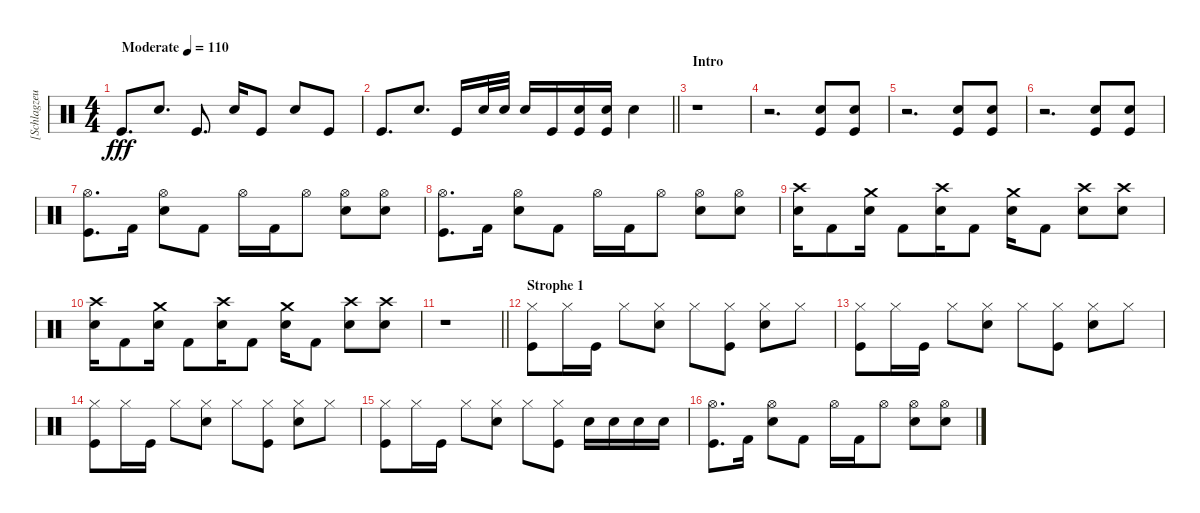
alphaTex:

\track ("[Schlagzeug]" "[Schlagzeu") {instrument percussion}
\staff {score}
\articulation defaults
\ts (4 4)
\tempo (110 "Moderate")
\clef neutral
\ks c "Kick (hit)".8{d dy fff volume 2} "Snare (hit) 2".8{d volume 6} "Kick (hit)".8{d} "Snare (hit) 2".16 "Kick (hit)".8 "Snare (hit) 2".8 "Kick (hit)".8
|
\barLineRight lightlight "Kick (hit)".8{d} "Snare (hit) 2".8{d} "Kick (hit)".16 "Snare (hit) 2".32 "Snare (hit) 2".32 "Snare (hit) 2".16 "Kick (hit)".16
("Kick (hit)" "Snare (hit) 2").16 ("Kick (hit)" "Snare (hit) 2").16 "Snare (hit) 2".4 |
\section ("" "Intro")
r.1{volume 16} |
r.2{d} ("Kick (hit)" "Electric Snare (hit)").8 ("Kick (hit)" "Electric Snare (hit)").8 |
r.2{d} ("Kick (hit)" "Electric Snare (hit)").8 ("Kick (hit)" "Electric Snare (hit)").8 |
r.2{d} ("Kick (hit)" "Electric Snare (hit)").8 ("Kick (hit)" "Electric Snare (hit)").8 |
("Kick (hit)" "Hi-Hat (open)").8{d} "Kick (hit) 2".16 ("Hi-Hat (open)" "Electric Snare (hit)").8 "Kick (hit) 2".8 "Hi-Hat (open)".16 "Kick (hit) 2".16 "Hi-Hat (open)".8 ("Hi-Hat (open)" "Electric Snare (hit)").8 ("Hi-Hat (open)" "Electric Snare (hit)").8 |
("Kick (hit)" "Hi-Hat (open)").8{d} "Kick (hit) 2".16 ("Hi-Hat (open)" "Electric Snare (hit)").8 "Kick (hit) 2".8 "Hi-Hat (open)".16 "Kick (hit) 2".16 "Hi-Hat (open)".8 ("Hi-Hat (open)" "Electric Snare (hit)").8 ("Hi-Hat (open)" "Electric Snare (hit)").8 |
("Crash high (hit)" "Electric Snare (hit)").16 "Kick (hit) 2".8 ("Crash medium (hit)" "Electric Snare (hit)").16 "Kick (hit) 2".8 ("Crash high (hit)" "Electric Snare (hit)").16 "Kick (hit) 2".8 ("Crash medium (hit)" "Electric Snare (hit)").16 "Kick (hit) 2".8 ("Crash high (hit)" "Electric Snare (hit)").8 ("Crash high (hit)" "Electric Snare (hit)").8 |
("Crash high (hit)" "Electric Snare (hit)").16 "Kick (hit) 2".8 ("Crash medium (hit)" "Electric Snare (hit)").16 "Kick (hit) 2".8 ("Crash high (hit)" "Electric Snare (hit)").16 "Kick (hit) 2".8 ("Crash medium (hit)" "Electric Snare (hit)").16 "Kick (hit) 2".8 ("Crash high (hit)" "Electric Snare (hit)").8 ("Crash high (hit)" "Electric Snare (hit)").8 |
\barLineRight lightlight
r.1{volume 0} |
\section ("" "Strophe 1")
("Hi-Hat (closed)" "Kick (hit)").8{volume 16} "Hi-Hat (closed)".16 "Kick (hit)".16 "Hi-Hat (closed)".8 ("Hi-Hat (closed)" "Electric Snare (hit)").8 "Hi-Hat (closed)".8 ("Hi-Hat (closed)" "Kick (hit)").8 ("Hi-Hat (closed)" "Electric Snare (hit)").8 "Hi-Hat (closed)".8 |
("Hi-Hat (closed)" "Kick (hit)").8 "Hi-Hat (closed)".16 "Kick (hit)".16 "Hi-Hat (closed)".8 ("Hi-Hat (closed)" "Electric Snare (hit)").8 "Hi-Hat (closed)".8 ("Hi-Hat (closed)" "Kick (hit)").8 ("Hi-Hat (closed)" "Electric Snare (hit)").8 "Hi-Hat (closed)".8 |
("Hi-Hat (closed)" "Kick (hit)").8 "Hi-Hat (closed)".16 "Kick (hit)".16 "Hi-Hat (closed)".8 ("Hi-Hat (closed)" "Electric Snare (hit)").8 "Hi-Hat (closed)".8 ("Hi-Hat (closed)" "Kick (hit)").8 ("Hi-Hat (closed)" "Electric Snare (hit)").8 "Hi-Hat (closed)".8 |
("Hi-Hat (closed)" "Kick (hit)").8 "Hi-Hat (closed)".16 "Kick (hit)".16 "Hi-Hat (closed)".8 ("Hi-Hat (closed)" "Electric Snare (hit)").8 "Hi-Hat (closed)".8 ("Hi-Hat (closed)" "Kick (hit)").8 "Electric Snare (hit)".16 "Electric Snare (hit)".16 "Electric Snare (hit)".16 "Electric Snare (hit)".16 |
("Kick (hit)" "Hi-Hat (open)").8{d} "Kick (hit) 2".16 ("Hi-Hat (open)" "Electric Snare (hit)").8 "Kick (hit) 2".8 "Hi-Hat (open)".16 "Kick (hit) 2".16 "Hi-Hat (open)".8 ("Hi-Hat (open)" "Electric Snare (hit)").8 ("Hi-Hat (open)" "Electric Snare (hit)").8
